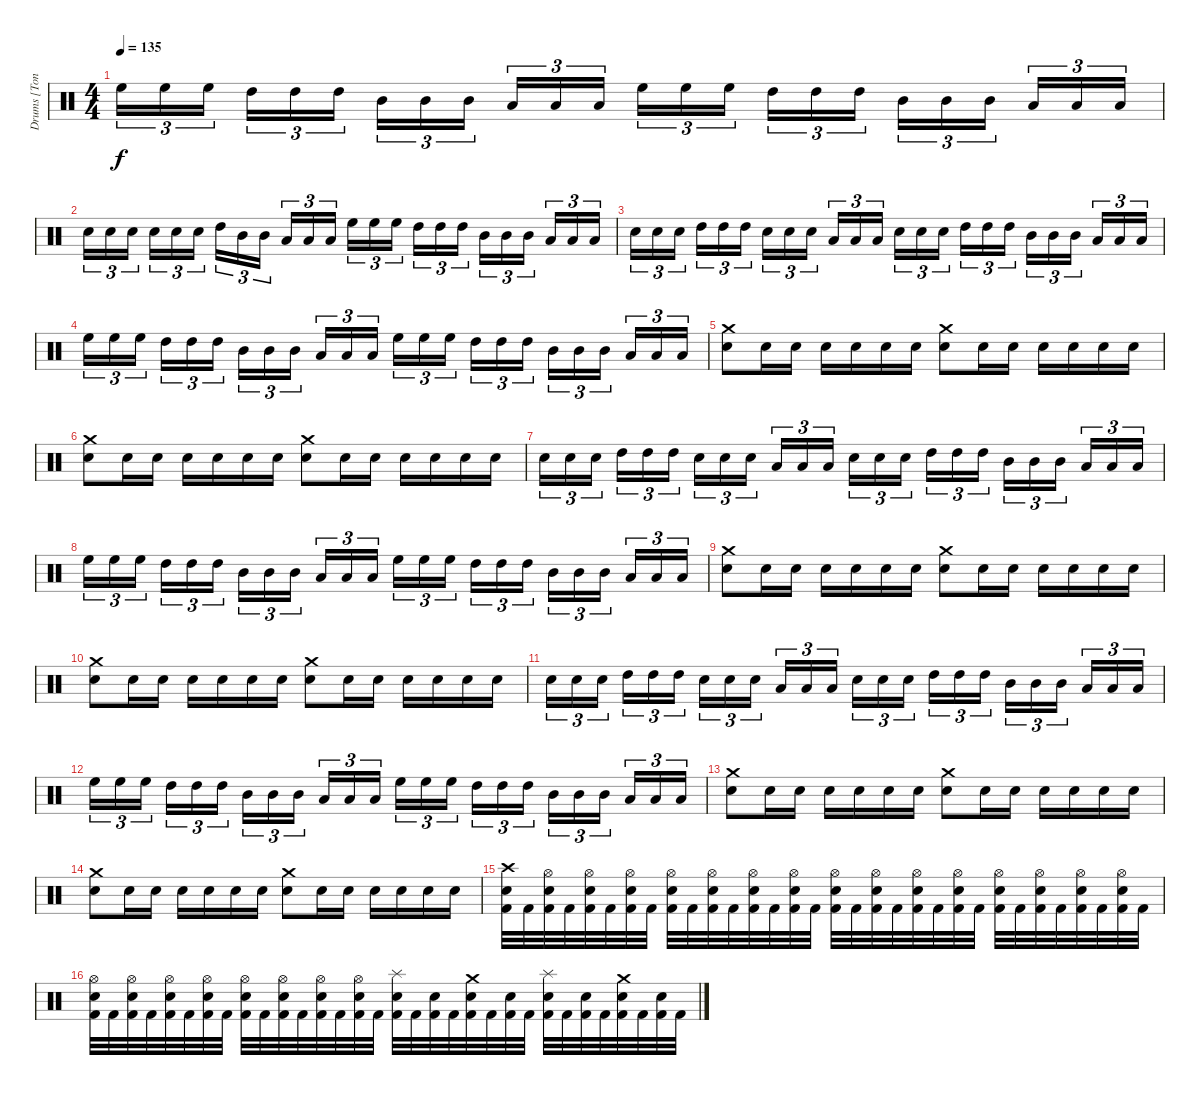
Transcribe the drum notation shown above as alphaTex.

\track ("Drums [Tony Laureano]" "Drums [Ton") {instrument percussion}
\staff {score}
\articulation defaults
\ts (4 4)
\tempo 135
\clef neutral
\ks c "High Floor Tom (hit)".16{tu (3 2) dy f} "High Floor Tom (hit)".16{tu (3 2)} "High Floor Tom (hit)".16{tu (3 2)} "High Tom (hit)".16{tu (3 2)} "High Tom (hit)".16{tu (3 2)} "High Tom (hit)".16{tu (3 2)} "Mid Tom (hit)".16{tu (3 2)} "Mid Tom (hit)".16{tu (3 2)} "Mid Tom (hit)".16{tu (3 2)} "Low Tom (hit)".16{tu (3 2)} "Low Tom (hit)".16{tu (3 2)} "Low Tom (hit)".16{tu (3 2)} "High Floor Tom (hit)".16{tu (3 2)} "High Floor Tom (hit)".16{tu (3 2)} "High Floor Tom (hit)".16{tu (3 2)} "High Tom (hit)".16{tu (3 2)} "High Tom (hit)".16{tu (3 2)} "High Tom (hit)".16{tu (3 2)} "Mid Tom (hit)".16{tu (3 2)} "Mid Tom (hit)".16{tu (3 2)} "Mid Tom (hit)".16{tu (3 2)} "Low Tom (hit)".16{tu (3 2)} "Low Tom (hit)".16{tu (3 2)} "Low Tom (hit)".16{tu (3 2)}
|
"Electric Snare (hit)".16{tu (3 2)} "Electric Snare (hit)".16{tu (3 2)} "Electric Snare (hit)".16{tu (3 2)} "Electric Snare (hit)".16{tu (3 2)} "Electric Snare (hit)".16{tu (3 2)} "Electric Snare (hit)".16{tu (3 2)} "High Tom (hit)".16{tu (3 2)} "Mid Tom (hit)".16{tu (3 2)} "Mid Tom (hit)".16{tu (3 2)} "Low Tom (hit)".16{tu (3 2)} "Low Tom (hit)".16{tu (3 2)} "Low Tom (hit)".16{tu (3 2)} "High Floor Tom (hit)".16{tu (3 2)} "High Floor Tom (hit)".16{tu (3 2)} "High Floor Tom (hit)".16{tu (3 2)} "High Tom (hit)".16{tu (3 2)} "High Tom (hit)".16{tu (3 2)} "High Tom (hit)".16{tu (3 2)} "Mid Tom (hit)".16{tu (3 2)} "Mid Tom (hit)".16{tu (3 2)} "Mid Tom (hit)".16{tu (3 2)} "Low Tom (hit)".16{tu (3 2)} "Low Tom (hit)".16{tu (3 2)} "Low Tom (hit)".16{tu (3 2)} |
"Electric Snare (hit)".16{tu (3 2)} "Electric Snare (hit)".16{tu (3 2)} "Electric Snare (hit)".16{tu (3 2)} "High Tom (hit)".16{tu (3 2)} "High Tom (hit)".16{tu (3 2)} "High Tom (hit)".16{tu (3 2)} "Electric Snare (hit)".16{tu (3 2)} "Electric Snare (hit)".16{tu (3 2)} "Electric Snare (hit)".16{tu (3 2)} "Low Tom (hit)".16{tu (3 2)} "Low Tom (hit)".16{tu (3 2)} "Low Tom (hit)".16{tu (3 2)} "Electric Snare (hit)".16{tu (3 2)} "Electric Snare (hit)".16{tu (3 2)} "Electric Snare (hit)".16{tu (3 2)} "High Tom (hit)".16{tu (3 2)} "High Tom (hit)".16{tu (3 2)} "High Tom (hit)".16{tu (3 2)} "Mid Tom (hit)".16{tu (3 2)} "Mid Tom (hit)".16{tu (3 2)} "Mid Tom (hit)".16{tu (3 2)} "Low Tom (hit)".16{tu (3 2)} "Low Tom (hit)".16{tu (3 2)} "Low Tom (hit)".16{tu (3 2)} |
"High Floor Tom (hit)".16{tu (3 2)} "High Floor Tom (hit)".16{tu (3 2)} "High Floor Tom (hit)".16{tu (3 2)} "High Tom (hit)".16{tu (3 2)} "High Tom (hit)".16{tu (3 2)} "High Tom (hit)".16{tu (3 2)} "Mid Tom (hit)".16{tu (3 2)} "Mid Tom (hit)".16{tu (3 2)} "Mid Tom (hit)".16{tu (3 2)} "Low Tom (hit)".16{tu (3 2)} "Low Tom (hit)".16{tu (3 2)} "Low Tom (hit)".16{tu (3 2)} "High Floor Tom (hit)".16{tu (3 2)} "High Floor Tom (hit)".16{tu (3 2)} "High Floor Tom (hit)".16{tu (3 2)} "High Tom (hit)".16{tu (3 2)} "High Tom (hit)".16{tu (3 2)} "High Tom (hit)".16{tu (3 2)} "Mid Tom (hit)".16{tu (3 2)} "Mid Tom (hit)".16{tu (3 2)} "Mid Tom (hit)".16{tu (3 2)} "Low Tom (hit)".16{tu (3 2)} "Low Tom (hit)".16{tu (3 2)} "Low Tom (hit)".16{tu (3 2)} |
("Crash medium (hit)" "Electric Snare (hit)").8 "Electric Snare (hit)".16 "Electric Snare (hit)".16 "Electric Snare (hit)".16 "Electric Snare (hit)".16 "Electric Snare (hit)".16 "Electric Snare (hit)".16 ("Crash medium (hit)" "Electric Snare (hit)").8 "Electric Snare (hit)".16 "Electric Snare (hit)".16 "Electric Snare (hit)".16 "Electric Snare (hit)".16 "Electric Snare (hit)".16 "Electric Snare (hit)".16 |
("Crash medium (hit)" "Electric Snare (hit)").8 "Electric Snare (hit)".16 "Electric Snare (hit)".16 "Electric Snare (hit)".16 "Electric Snare (hit)".16 "Electric Snare (hit)".16 "Electric Snare (hit)".16 ("Crash medium (hit)" "Electric Snare (hit)").8 "Electric Snare (hit)".16 "Electric Snare (hit)".16 "Electric Snare (hit)".16 "Electric Snare (hit)".16 "Electric Snare (hit)".16 "Electric Snare (hit)".16 |
"Electric Snare (hit)".16{tu (3 2)} "Electric Snare (hit)".16{tu (3 2)} "Electric Snare (hit)".16{tu (3 2)} "High Tom (hit)".16{tu (3 2)} "High Tom (hit)".16{tu (3 2)} "High Tom (hit)".16{tu (3 2)} "Electric Snare (hit)".16{tu (3 2)} "Electric Snare (hit)".16{tu (3 2)} "Electric Snare (hit)".16{tu (3 2)} "Low Tom (hit)".16{tu (3 2)} "Low Tom (hit)".16{tu (3 2)} "Low Tom (hit)".16{tu (3 2)} "Electric Snare (hit)".16{tu (3 2)} "Electric Snare (hit)".16{tu (3 2)} "Electric Snare (hit)".16{tu (3 2)} "High Tom (hit)".16{tu (3 2)} "High Tom (hit)".16{tu (3 2)} "High Tom (hit)".16{tu (3 2)} "Mid Tom (hit)".16{tu (3 2)} "Mid Tom (hit)".16{tu (3 2)} "Mid Tom (hit)".16{tu (3 2)} "Low Tom (hit)".16{tu (3 2)} "Low Tom (hit)".16{tu (3 2)} "Low Tom (hit)".16{tu (3 2)} |
"High Floor Tom (hit)".16{tu (3 2)} "High Floor Tom (hit)".16{tu (3 2)} "High Floor Tom (hit)".16{tu (3 2)} "High Tom (hit)".16{tu (3 2)} "High Tom (hit)".16{tu (3 2)} "High Tom (hit)".16{tu (3 2)} "Mid Tom (hit)".16{tu (3 2)} "Mid Tom (hit)".16{tu (3 2)} "Mid Tom (hit)".16{tu (3 2)} "Low Tom (hit)".16{tu (3 2)} "Low Tom (hit)".16{tu (3 2)} "Low Tom (hit)".16{tu (3 2)} "High Floor Tom (hit)".16{tu (3 2)} "High Floor Tom (hit)".16{tu (3 2)} "High Floor Tom (hit)".16{tu (3 2)} "High Tom (hit)".16{tu (3 2)} "High Tom (hit)".16{tu (3 2)} "High Tom (hit)".16{tu (3 2)} "Mid Tom (hit)".16{tu (3 2)} "Mid Tom (hit)".16{tu (3 2)} "Mid Tom (hit)".16{tu (3 2)} "Low Tom (hit)".16{tu (3 2)} "Low Tom (hit)".16{tu (3 2)} "Low Tom (hit)".16{tu (3 2)} |
("Crash medium (hit)" "Electric Snare (hit)").8 "Electric Snare (hit)".16 "Electric Snare (hit)".16 "Electric Snare (hit)".16 "Electric Snare (hit)".16 "Electric Snare (hit)".16 "Electric Snare (hit)".16 ("Crash medium (hit)" "Electric Snare (hit)").8 "Electric Snare (hit)".16 "Electric Snare (hit)".16 "Electric Snare (hit)".16 "Electric Snare (hit)".16 "Electric Snare (hit)".16 "Electric Snare (hit)".16 |
("Crash medium (hit)" "Electric Snare (hit)").8 "Electric Snare (hit)".16 "Electric Snare (hit)".16 "Electric Snare (hit)".16 "Electric Snare (hit)".16 "Electric Snare (hit)".16 "Electric Snare (hit)".16 ("Crash medium (hit)" "Electric Snare (hit)").8 "Electric Snare (hit)".16 "Electric Snare (hit)".16 "Electric Snare (hit)".16 "Electric Snare (hit)".16 "Electric Snare (hit)".16 "Electric Snare (hit)".16 |
"Electric Snare (hit)".16{tu (3 2)} "Electric Snare (hit)".16{tu (3 2)} "Electric Snare (hit)".16{tu (3 2)} "High Tom (hit)".16{tu (3 2)} "High Tom (hit)".16{tu (3 2)} "High Tom (hit)".16{tu (3 2)} "Electric Snare (hit)".16{tu (3 2)} "Electric Snare (hit)".16{tu (3 2)} "Electric Snare (hit)".16{tu (3 2)} "Low Tom (hit)".16{tu (3 2)} "Low Tom (hit)".16{tu (3 2)} "Low Tom (hit)".16{tu (3 2)} "Electric Snare (hit)".16{tu (3 2)} "Electric Snare (hit)".16{tu (3 2)} "Electric Snare (hit)".16{tu (3 2)} "High Tom (hit)".16{tu (3 2)} "High Tom (hit)".16{tu (3 2)} "High Tom (hit)".16{tu (3 2)} "Mid Tom (hit)".16{tu (3 2)} "Mid Tom (hit)".16{tu (3 2)} "Mid Tom (hit)".16{tu (3 2)} "Low Tom (hit)".16{tu (3 2)} "Low Tom (hit)".16{tu (3 2)} "Low Tom (hit)".16{tu (3 2)} |
"High Floor Tom (hit)".16{tu (3 2)} "High Floor Tom (hit)".16{tu (3 2)} "High Floor Tom (hit)".16{tu (3 2)} "High Tom (hit)".16{tu (3 2)} "High Tom (hit)".16{tu (3 2)} "High Tom (hit)".16{tu (3 2)} "Mid Tom (hit)".16{tu (3 2)} "Mid Tom (hit)".16{tu (3 2)} "Mid Tom (hit)".16{tu (3 2)} "Low Tom (hit)".16{tu (3 2)} "Low Tom (hit)".16{tu (3 2)} "Low Tom (hit)".16{tu (3 2)} "High Floor Tom (hit)".16{tu (3 2)} "High Floor Tom (hit)".16{tu (3 2)} "High Floor Tom (hit)".16{tu (3 2)} "High Tom (hit)".16{tu (3 2)} "High Tom (hit)".16{tu (3 2)} "High Tom (hit)".16{tu (3 2)} "Mid Tom (hit)".16{tu (3 2)} "Mid Tom (hit)".16{tu (3 2)} "Mid Tom (hit)".16{tu (3 2)} "Low Tom (hit)".16{tu (3 2)} "Low Tom (hit)".16{tu (3 2)} "Low Tom (hit)".16{tu (3 2)} |
("Crash medium (hit)" "Electric Snare (hit)").8 "Electric Snare (hit)".16 "Electric Snare (hit)".16 "Electric Snare (hit)".16 "Electric Snare (hit)".16 "Electric Snare (hit)".16 "Electric Snare (hit)".16 ("Crash medium (hit)" "Electric Snare (hit)").8 "Electric Snare (hit)".16 "Electric Snare (hit)".16 "Electric Snare (hit)".16 "Electric Snare (hit)".16 "Electric Snare (hit)".16 "Electric Snare (hit)".16 |
("Crash medium (hit)" "Electric Snare (hit)").8 "Electric Snare (hit)".16 "Electric Snare (hit)".16 "Electric Snare (hit)".16 "Electric Snare (hit)".16 "Electric Snare (hit)".16 "Electric Snare (hit)".16 ("Crash medium (hit)" "Electric Snare (hit)").8 "Electric Snare (hit)".16 "Electric Snare (hit)".16 "Electric Snare (hit)".16 "Electric Snare (hit)".16 "Electric Snare (hit)".16 "Electric Snare (hit)".16 |
("Crash high (hit)" "Electric Snare (hit)" "Kick (hit) 2").32 "Kick (hit) 2".32 ("Hi-Hat (open)" "Electric Snare (hit)" "Kick (hit) 2").32 "Kick (hit) 2".32 ("Hi-Hat (open)" "Electric Snare (hit)" "Kick (hit) 2").32 "Kick (hit) 2".32 ("Hi-Hat (open)" "Electric Snare (hit)" "Kick (hit) 2").32 "Kick (hit) 2".32 ("Hi-Hat (open)" "Electric Snare (hit)" "Kick (hit) 2").32 "Kick (hit) 2".32 ("Hi-Hat (open)" "Electric Snare (hit)" "Kick (hit) 2").32 "Kick (hit) 2".32 ("Hi-Hat (open)" "Electric Snare (hit)" "Kick (hit) 2").32 "Kick (hit) 2".32 ("Hi-Hat (open)" "Electric Snare (hit)" "Kick (hit) 2").32 "Kick (hit) 2".32 ("Hi-Hat (open)" "Electric Snare (hit)" "Kick (hit) 2").32 "Kick (hit) 2".32 ("Hi-Hat (open)" "Electric Snare (hit)" "Kick (hit) 2").32 "Kick (hit) 2".32 ("Hi-Hat (open)" "Electric Snare (hit)" "Kick (hit) 2").32 "Kick (hit) 2".32 ("Hi-Hat (open)" "Electric Snare (hit)" "Kick (hit) 2").32 "Kick (hit) 2".32 ("Hi-Hat (open)" "Electric Snare (hit)" "Kick (hit) 2").32 "Kick (hit) 2".32 ("Hi-Hat (open)" "Electric Snare (hit)" "Kick (hit) 2").32 "Kick (hit) 2".32 ("Hi-Hat (open)" "Electric Snare (hit)" "Kick (hit) 2").32 "Kick (hit) 2".32 ("Hi-Hat (open)" "Electric Snare (hit)" "Kick (hit) 2").32 "Kick (hit) 2".32 |
("Hi-Hat (open)" "Electric Snare (hit)" "Kick (hit) 2").32 "Kick (hit) 2".32 ("Hi-Hat (open)" "Electric Snare (hit)" "Kick (hit) 2").32 "Kick (hit) 2".32 ("Hi-Hat (open)" "Electric Snare (hit)" "Kick (hit) 2").32 "Kick (hit) 2".32 ("Hi-Hat (open)" "Electric Snare (hit)" "Kick (hit) 2").32 "Kick (hit) 2".32 ("Hi-Hat (open)" "Electric Snare (hit)" "Kick (hit) 2").32 "Kick (hit) 2".32 ("Hi-Hat (open)" "Electric Snare (hit)" "Kick (hit) 2").32 "Kick (hit) 2".32 ("Hi-Hat (open)" "Electric Snare (hit)" "Kick (hit) 2").32 "Kick (hit) 2".32 ("Hi-Hat (open)" "Electric Snare (hit)" "Kick (hit) 2").32 "Kick (hit) 2".32 ("Splash (hit)" "Electric Snare (hit)" "Kick (hit) 2").32 "Kick (hit) 2".32 ("Electric Snare (hit)" "Kick (hit) 2").32 "Kick (hit) 2".32 ("Crash medium (hit)" "Electric Snare (hit)" "Kick (hit) 2").32 "Kick (hit) 2".32 ("Electric Snare (hit)" "Kick (hit) 2").32 "Kick (hit) 2".32 ("Splash (hit)" "Electric Snare (hit)" "Kick (hit) 2").32 "Kick (hit) 2".32 ("Electric Snare (hit)" "Kick (hit) 2").32 "Kick (hit) 2".32 ("Crash medium (hit)" "Electric Snare (hit)" "Kick (hit) 2").32 "Kick (hit) 2".32 ("Electric Snare (hit)" "Kick (hit) 2").32 "Kick (hit) 2".32
